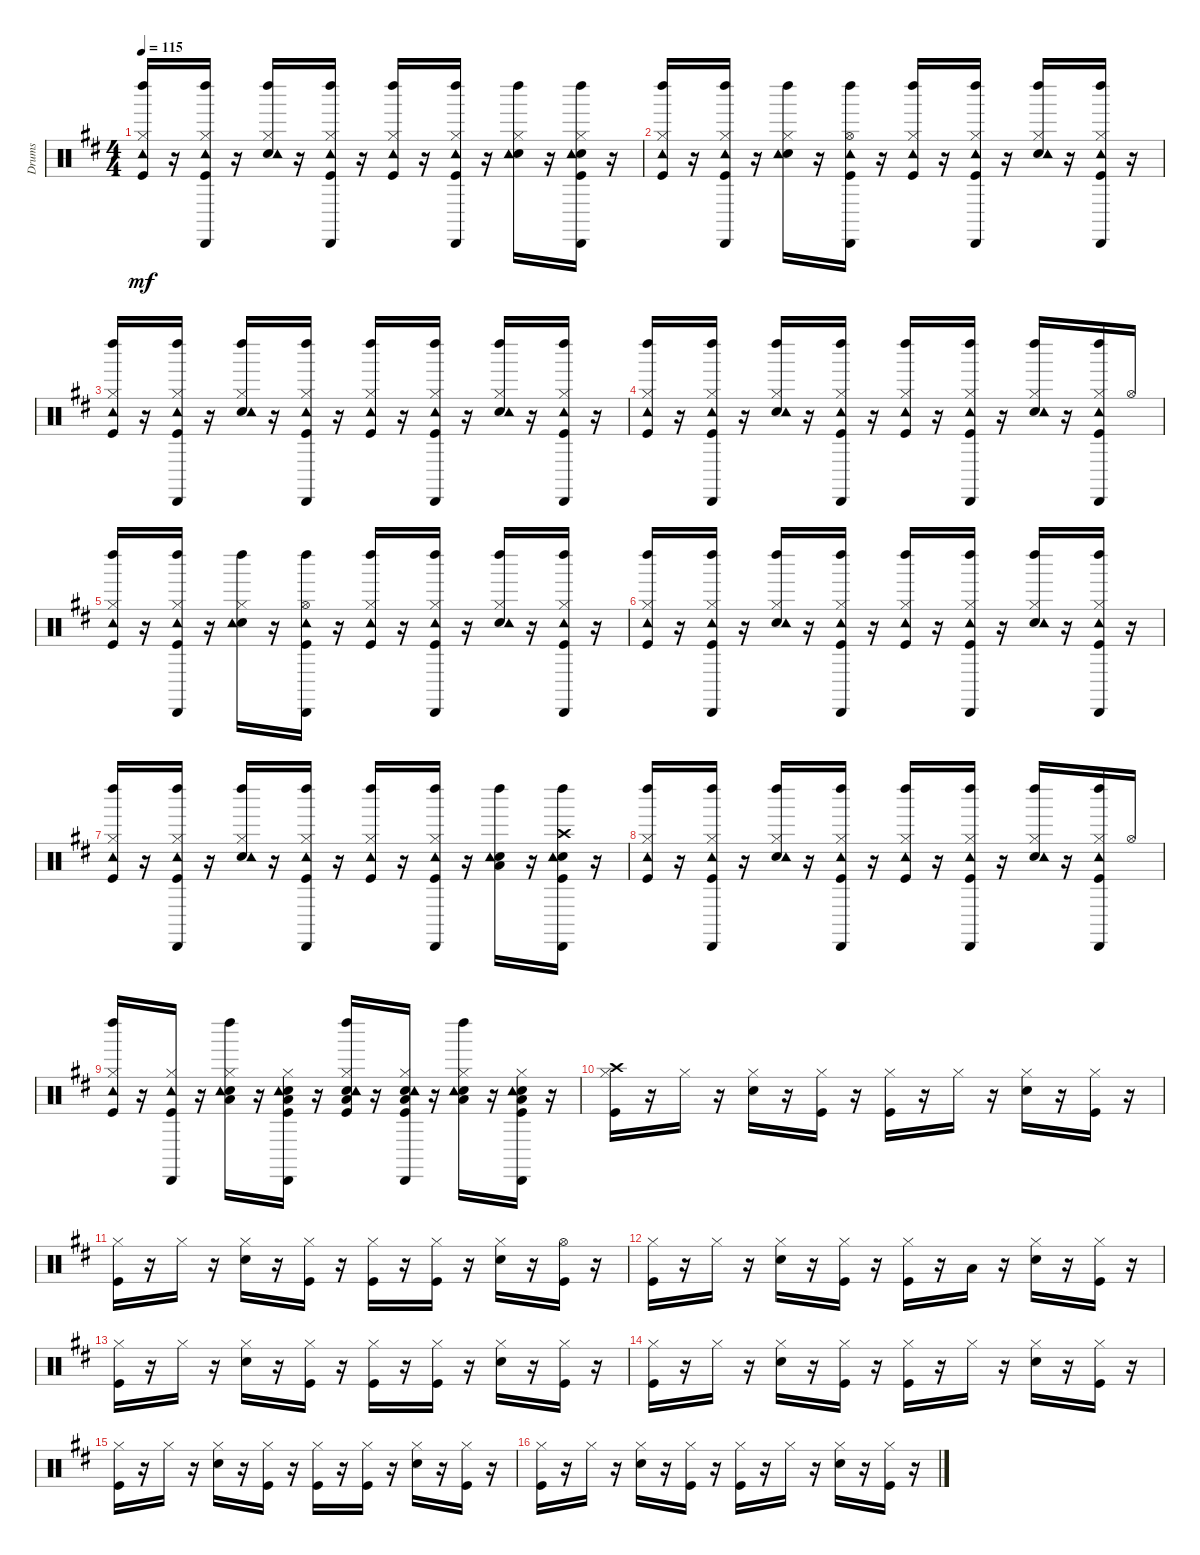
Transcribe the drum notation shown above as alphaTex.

\track ("Drums" "Drums") {instrument percussion}
\staff {score}
\articulation defaults
\ts (4 4)
\tempo 115
\clef neutral
\ks bminor
("Kick (hit)" "Hi-Hat (closed)" "Tambourine (hit)" "Left Maraca (hit)").16{dy mf} r.16 ("Kick (hit)" "Hi-Hat (closed)" "Tambourine (hit)" "Cabasa (hit)" "Left Maraca (hit)").16 r.16 ("Snare (hit) 2" "Hi-Hat (closed)" "Tambourine (hit)" "Left Maraca (hit)").16 r.16 ("Kick (hit)" "Hi-Hat (closed)" "Tambourine (hit)" "Cabasa (hit)" "Left Maraca (hit)").16 r.16 ("Kick (hit)" "Hi-Hat (closed)" "Tambourine (hit)" "Left Maraca (hit)").16 r.16 ("Kick (hit)" "Hi-Hat (closed)" "Tambourine (hit)" "Cabasa (hit)" "Left Maraca (hit)").16 r.16 ("Snare (hit) 2" "Hi-Hat (closed)" "Tambourine (hit)" "Left Maraca (hit)").16 r.16 ("Kick (hit)" "Snare (hit) 2" "Hi-Hat (closed)" "Tambourine (hit)" "Cabasa (hit)" "Left Maraca (hit)").16 r.16 |
("Kick (hit)" "Hi-Hat (closed)" "Tambourine (hit)" "Left Maraca (hit)").16 r.16 ("Kick (hit)" "Hi-Hat (closed)" "Tambourine (hit)" "Cabasa (hit)" "Left Maraca (hit)").16 r.16 ("Snare (hit) 2" "Hi-Hat (closed)" "Tambourine (hit)" "Left Maraca (hit)").16 r.16 ("Kick (hit)" "Hi-Hat (open)" "Tambourine (hit)" "Cabasa (hit)" "Left Maraca (hit)").16 r.16 ("Kick (hit)" "Hi-Hat (closed)" "Tambourine (hit)" "Left Maraca (hit)").16 r.16 ("Kick (hit)" "Hi-Hat (closed)" "Tambourine (hit)" "Cabasa (hit)" "Left Maraca (hit)").16 r.16 ("Snare (hit) 2" "Hi-Hat (closed)" "Tambourine (hit)" "Left Maraca (hit)").16 r.16 ("Kick (hit)" "Hi-Hat (closed)" "Tambourine (hit)" "Cabasa (hit)" "Left Maraca (hit)").16 r.16 |
("Kick (hit)" "Hi-Hat (closed)" "Tambourine (hit)" "Left Maraca (hit)").16 r.16 ("Kick (hit)" "Hi-Hat (closed)" "Tambourine (hit)" "Cabasa (hit)" "Left Maraca (hit)").16 r.16 ("Snare (hit) 2" "Hi-Hat (closed)" "Tambourine (hit)" "Left Maraca (hit)").16 r.16 ("Kick (hit)" "Hi-Hat (closed)" "Tambourine (hit)" "Cabasa (hit)" "Left Maraca (hit)").16 r.16 ("Kick (hit)" "Hi-Hat (closed)" "Tambourine (hit)" "Left Maraca (hit)").16 r.16 ("Kick (hit)" "Hi-Hat (closed)" "Tambourine (hit)" "Cabasa (hit)" "Left Maraca (hit)").16 r.16 ("Snare (hit) 2" "Hi-Hat (closed)" "Tambourine (hit)" "Left Maraca (hit)").16 r.16 ("Kick (hit)" "Hi-Hat (closed)" "Tambourine (hit)" "Cabasa (hit)" "Left Maraca (hit)").16 r.16 |
("Kick (hit)" "Hi-Hat (closed)" "Tambourine (hit)" "Left Maraca (hit)").16 r.16 ("Kick (hit)" "Hi-Hat (closed)" "Tambourine (hit)" "Cabasa (hit)" "Left Maraca (hit)").16 r.16 ("Snare (hit) 2" "Hi-Hat (closed)" "Tambourine (hit)" "Left Maraca (hit)").16 r.16 ("Kick (hit)" "Hi-Hat (closed)" "Tambourine (hit)" "Cabasa (hit)" "Left Maraca (hit)").16 r.16 ("Kick (hit)" "Hi-Hat (closed)" "Tambourine (hit)" "Left Maraca (hit)").16 r.16 ("Kick (hit)" "Hi-Hat (closed)" "Tambourine (hit)" "Cabasa (hit)" "Left Maraca (hit)").16 r.16 ("Snare (hit) 2" "Hi-Hat (closed)" "Tambourine (hit)" "Left Maraca (hit)").16 r.16 ("Kick (hit)" "Hi-Hat (closed)" "Tambourine (hit)" "Cabasa (hit)" "Left Maraca (hit)").16 "Hi-Hat (open)".16 |
("Kick (hit)" "Hi-Hat (closed)" "Tambourine (hit)" "Left Maraca (hit)").16 r.16 ("Kick (hit)" "Hi-Hat (closed)" "Tambourine (hit)" "Cabasa (hit)" "Left Maraca (hit)").16 r.16 ("Snare (hit) 2" "Hi-Hat (closed)" "Tambourine (hit)" "Left Maraca (hit)").16 r.16 ("Kick (hit)" "Hi-Hat (open)" "Tambourine (hit)" "Cabasa (hit)" "Left Maraca (hit)").16 r.16 ("Kick (hit)" "Hi-Hat (closed)" "Tambourine (hit)" "Left Maraca (hit)").16 r.16 ("Kick (hit)" "Hi-Hat (closed)" "Tambourine (hit)" "Cabasa (hit)" "Left Maraca (hit)").16 r.16 ("Snare (hit) 2" "Hi-Hat (closed)" "Tambourine (hit)" "Left Maraca (hit)").16 r.16 ("Kick (hit)" "Hi-Hat (closed)" "Tambourine (hit)" "Cabasa (hit)" "Left Maraca (hit)").16 r.16 |
("Kick (hit)" "Hi-Hat (closed)" "Tambourine (hit)" "Left Maraca (hit)").16 r.16 ("Kick (hit)" "Hi-Hat (closed)" "Tambourine (hit)" "Cabasa (hit)" "Left Maraca (hit)").16 r.16 ("Snare (hit) 2" "Hi-Hat (closed)" "Tambourine (hit)" "Left Maraca (hit)").16 r.16 ("Kick (hit)" "Hi-Hat (closed)" "Tambourine (hit)" "Cabasa (hit)" "Left Maraca (hit)").16 r.16 ("Kick (hit)" "Hi-Hat (closed)" "Tambourine (hit)" "Left Maraca (hit)").16 r.16 ("Kick (hit)" "Hi-Hat (closed)" "Tambourine (hit)" "Cabasa (hit)" "Left Maraca (hit)").16 r.16 ("Snare (hit) 2" "Hi-Hat (closed)" "Tambourine (hit)" "Left Maraca (hit)").16 r.16 ("Kick (hit)" "Hi-Hat (closed)" "Tambourine (hit)" "Cabasa (hit)" "Left Maraca (hit)").16 r.16 |
("Kick (hit)" "Hi-Hat (closed)" "Tambourine (hit)" "Left Maraca (hit)").16 r.16 ("Kick (hit)" "Hi-Hat (closed)" "Tambourine (hit)" "Cabasa (hit)" "Left Maraca (hit)").16 r.16 ("Snare (hit) 2" "Hi-Hat (closed)" "Tambourine (hit)" "Left Maraca (hit)").16 r.16 ("Kick (hit)" "Hi-Hat (closed)" "Tambourine (hit)" "Cabasa (hit)" "Left Maraca (hit)").16 r.16 ("Kick (hit)" "Hi-Hat (closed)" "Tambourine (hit)" "Left Maraca (hit)").16 r.16 ("Kick (hit)" "Hi-Hat (closed)" "Tambourine (hit)" "Cabasa (hit)" "Left Maraca (hit)").16 r.16 ("Snare (hit) 2" "Low Floor Tom (hit)" "Tambourine (hit)" "Left Maraca (hit)").16 r.16 ("Kick (hit)" "Snare (hit) 2" "Crash high (hit)" "Tambourine (hit)" "Cabasa (hit)" "Left Maraca (hit)").16 r.16 |
("Kick (hit)" "Hi-Hat (closed)" "Tambourine (hit)" "Left Maraca (hit)").16 r.16 ("Kick (hit)" "Hi-Hat (closed)" "Tambourine (hit)" "Cabasa (hit)" "Left Maraca (hit)").16 r.16 ("Snare (hit) 2" "Hi-Hat (closed)" "Tambourine (hit)" "Left Maraca (hit)").16 r.16 ("Kick (hit)" "Hi-Hat (closed)" "Tambourine (hit)" "Cabasa (hit)" "Left Maraca (hit)").16 r.16 ("Kick (hit)" "Hi-Hat (closed)" "Tambourine (hit)" "Left Maraca (hit)").16 r.16 ("Kick (hit)" "Hi-Hat (closed)" "Tambourine (hit)" "Cabasa (hit)" "Left Maraca (hit)").16 r.16 ("Snare (hit) 2" "Hi-Hat (closed)" "Tambourine (hit)" "Left Maraca (hit)").16 r.16 ("Kick (hit)" "Hi-Hat (closed)" "Tambourine (hit)" "Cabasa (hit)" "Left Maraca (hit)").16 "Hi-Hat (open)".16 |
("Kick (hit)" "Hi-Hat (closed)" "Tambourine (hit)" "Left Maraca (hit)").16 r.16 ("Kick (hit)" "Hi-Hat (closed)" "Tambourine (hit)" "Cabasa (hit)").16 r.16 ("Snare (hit) 2" "Low Floor Tom (hit)" "Hi-Hat (closed)" "Tambourine (hit)" "Left Maraca (hit)").16 r.16 ("Kick (hit)" "Snare (hit) 2" "Low Floor Tom (hit)" "Hi-Hat (closed)" "Tambourine (hit)" "Cabasa (hit)").16 r.16 ("Kick (hit)" "Snare (hit) 2" "Low Floor Tom (hit)" "Hi-Hat (closed)" "Tambourine (hit)" "Left Maraca (hit)").16 r.16 ("Kick (hit)" "Snare (hit) 2" "Low Floor Tom (hit)" "Hi-Hat (closed)" "Tambourine (hit)" "Cabasa (hit)").16 r.16 ("Snare (hit) 2" "Low Floor Tom (hit)" "Hi-Hat (closed)" "Tambourine (hit)" "Left Maraca (hit)").16 r.16 ("Kick (hit)" "Snare (hit) 2" "Low Floor Tom (hit)" "Hi-Hat (closed)" "Tambourine (hit)" "Cabasa (hit)").16 r.16 |
("Kick (hit)" "Hi-Hat (closed)" "Crash high (hit)").16 r.16 "Hi-Hat (closed)".16 r.16 ("Snare (hit) 2" "Hi-Hat (closed)").16 r.16 ("Kick (hit)" "Hi-Hat (closed)").16 r.16 ("Kick (hit)" "Hi-Hat (closed)").16 r.16 "Hi-Hat (closed)".16 r.16 ("Snare (hit) 2" "Hi-Hat (closed)").16 r.16 ("Kick (hit)" "Hi-Hat (closed)").16 r.16 |
("Kick (hit)" "Hi-Hat (closed)").16 r.16 "Hi-Hat (closed)".16 r.16 ("Snare (hit) 2" "Hi-Hat (closed)").16 r.16 ("Kick (hit)" "Hi-Hat (closed)").16 r.16 ("Kick (hit)" "Hi-Hat (closed)").16 r.16 ("Kick (hit)" "Hi-Hat (closed)").16 r.16 ("Snare (hit) 2" "Hi-Hat (closed)").16 r.16 ("Kick (hit)" "Hi-Hat (open)").16 r.16 |
("Kick (hit)" "Hi-Hat (closed)").16 r.16 "Hi-Hat (closed)".16 r.16 ("Snare (hit) 2" "Hi-Hat (closed)").16 r.16 ("Kick (hit)" "Hi-Hat (closed)").16 r.16 ("Kick (hit)" "Hi-Hat (closed)").16 r.16 "Low Floor Tom (hit)".16 r.16 ("Snare (hit) 2" "Hi-Hat (closed)").16 r.16 ("Kick (hit)" "Hi-Hat (closed)").16 r.16 |
("Kick (hit)" "Hi-Hat (closed)").16 r.16 "Hi-Hat (closed)".16 r.16 ("Snare (hit) 2" "Hi-Hat (closed)").16 r.16 ("Kick (hit)" "Hi-Hat (closed)").16 r.16 ("Kick (hit)" "Hi-Hat (closed)").16 r.16 ("Kick (hit)" "Hi-Hat (closed)").16 r.16 ("Snare (hit) 2" "Hi-Hat (closed)").16 r.16 ("Kick (hit)" "Hi-Hat (closed)").16 r.16 |
("Kick (hit)" "Hi-Hat (closed)").16 r.16 "Hi-Hat (closed)".16 r.16 ("Snare (hit) 2" "Hi-Hat (closed)").16 r.16 ("Kick (hit)" "Hi-Hat (closed)").16 r.16 ("Kick (hit)" "Hi-Hat (closed)").16 r.16 "Hi-Hat (closed)".16 r.16 ("Snare (hit) 2" "Hi-Hat (closed)").16 r.16 ("Kick (hit)" "Hi-Hat (closed)").16 r.16 |
("Kick (hit)" "Hi-Hat (closed)").16 r.16 "Hi-Hat (closed)".16 r.16 ("Snare (hit) 2" "Hi-Hat (closed)").16 r.16 ("Kick (hit)" "Hi-Hat (closed)").16 r.16 ("Kick (hit)" "Hi-Hat (closed)").16 r.16 ("Kick (hit)" "Hi-Hat (closed)").16 r.16 ("Snare (hit) 2" "Hi-Hat (closed)").16 r.16 ("Kick (hit)" "Hi-Hat (closed)").16 r.16 |
("Kick (hit)" "Hi-Hat (closed)").16 r.16 "Hi-Hat (closed)".16 r.16 ("Snare (hit) 2" "Hi-Hat (closed)").16 r.16 ("Kick (hit)" "Hi-Hat (closed)").16 r.16 ("Kick (hit)" "Hi-Hat (closed)").16 r.16 "Hi-Hat (closed)".16 r.16 ("Snare (hit) 2" "Hi-Hat (closed)").16 r.16 ("Kick (hit)" "Hi-Hat (closed)").16 r.16
